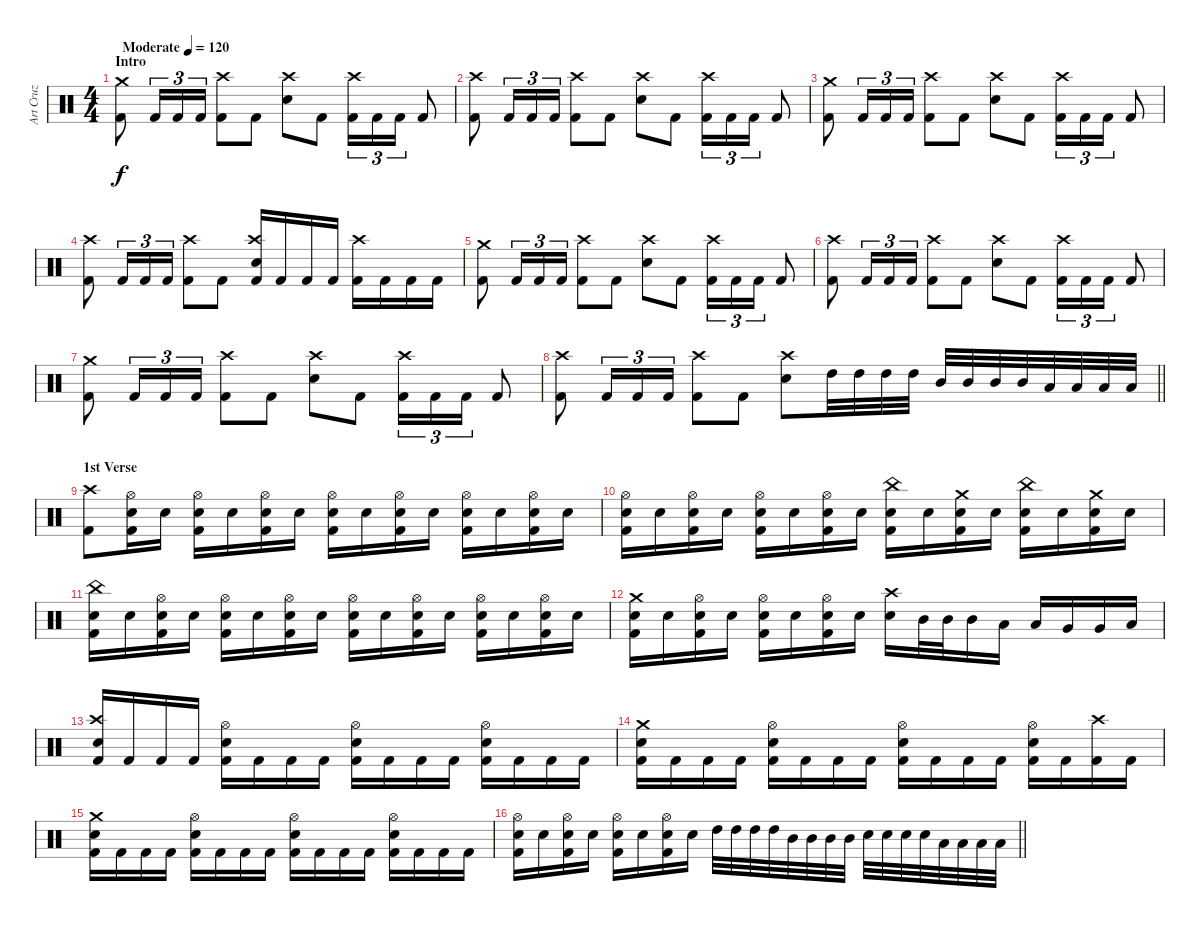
\track ("Art Cruz" "Art Cruz") {instrument percussion}
\staff {score}
\articulation defaults
\ts (4 4)
\section ("" "Intro")
\tempo (120 "Moderate")
\clef neutral
\ks c
("Crash medium (hit)" "Kick (hit) 2").8{dy f} "Kick (hit) 2".16{tu (3 2)} "Kick (hit) 2".16{tu (3 2)} "Kick (hit) 2".16{tu (3 2)} ("Crash high (hit)" "Kick (hit) 2").8 "Kick (hit) 2".8 ("Crash high (hit)" "Snare (hit) 2").8 "Kick (hit) 2".8 ("Crash high (hit)" "Kick (hit) 2").16{tu (3 2)} "Kick (hit) 2".16{tu (3 2)} "Kick (hit) 2".16{tu (3 2)} "Kick (hit) 2".8 |
("Crash high (hit)" "Kick (hit) 2").8 "Kick (hit) 2".16{tu (3 2)} "Kick (hit) 2".16{tu (3 2)} "Kick (hit) 2".16{tu (3 2)} ("Crash high (hit)" "Kick (hit) 2").8 "Kick (hit) 2".8 ("Crash high (hit)" "Snare (hit) 2").8 "Kick (hit) 2".8 ("Crash high (hit)" "Kick (hit) 2").16{tu (3 2)} "Kick (hit) 2".16{tu (3 2)} "Kick (hit) 2".16{tu (3 2)} "Kick (hit) 2".8 |
("Crash medium (hit)" "Kick (hit) 2").8 "Kick (hit) 2".16{tu (3 2)} "Kick (hit) 2".16{tu (3 2)} "Kick (hit) 2".16{tu (3 2)} ("Crash high (hit)" "Kick (hit) 2").8 "Kick (hit) 2".8 ("Crash high (hit)" "Snare (hit) 2").8 "Kick (hit) 2".8 ("Crash high (hit)" "Kick (hit) 2").16{tu (3 2)} "Kick (hit) 2".16{tu (3 2)} "Kick (hit) 2".16{tu (3 2)} "Kick (hit) 2".8 |
("Crash high (hit)" "Kick (hit) 2").8 "Kick (hit) 2".16{tu (3 2)} "Kick (hit) 2".16{tu (3 2)} "Kick (hit) 2".16{tu (3 2)} ("Crash high (hit)" "Kick (hit) 2").8 "Kick (hit) 2".8 ("Crash high (hit)" "Snare (hit) 2" "Kick (hit) 2").16 "Kick (hit) 2".16 "Kick (hit) 2".16 "Kick (hit) 2".16 ("Crash high (hit)" "Kick (hit) 2").16 "Kick (hit) 2".16 "Kick (hit) 2".16 "Kick (hit) 2".16 |
("Crash medium (hit)" "Kick (hit) 2").8 "Kick (hit) 2".16{tu (3 2)} "Kick (hit) 2".16{tu (3 2)} "Kick (hit) 2".16{tu (3 2)} ("Crash high (hit)" "Kick (hit) 2").8 "Kick (hit) 2".8 ("Crash high (hit)" "Snare (hit) 2").8 "Kick (hit) 2".8 ("Crash high (hit)" "Kick (hit) 2").16{tu (3 2)} "Kick (hit) 2".16{tu (3 2)} "Kick (hit) 2".16{tu (3 2)} "Kick (hit) 2".8 |
("Crash high (hit)" "Kick (hit) 2").8 "Kick (hit) 2".16{tu (3 2)} "Kick (hit) 2".16{tu (3 2)} "Kick (hit) 2".16{tu (3 2)} ("Crash high (hit)" "Kick (hit) 2").8 "Kick (hit) 2".8 ("Crash high (hit)" "Snare (hit) 2").8 "Kick (hit) 2".8 ("Crash high (hit)" "Kick (hit) 2").16{tu (3 2)} "Kick (hit) 2".16{tu (3 2)} "Kick (hit) 2".16{tu (3 2)} "Kick (hit) 2".8 |
("Crash medium (hit)" "Kick (hit) 2").8 "Kick (hit) 2".16{tu (3 2)} "Kick (hit) 2".16{tu (3 2)} "Kick (hit) 2".16{tu (3 2)} ("Crash high (hit)" "Kick (hit) 2").8 "Kick (hit) 2".8 ("Crash high (hit)" "Snare (hit) 2").8 "Kick (hit) 2".8 ("Crash high (hit)" "Kick (hit) 2").16{tu (3 2)} "Kick (hit) 2".16{tu (3 2)} "Kick (hit) 2".16{tu (3 2)} "Kick (hit) 2".8 |
\barLineRight lightlight
("Crash high (hit)" "Kick (hit) 2").8 "Kick (hit) 2".16{tu (3 2)} "Kick (hit) 2".16{tu (3 2)} "Kick (hit) 2".16{tu (3 2)} ("Crash high (hit)" "Kick (hit) 2").8 "Kick (hit) 2".8 ("Crash high (hit)" "Snare (hit) 2").8 "High Tom (hit)".32 "High Tom (hit)".32 "High Tom (hit)".32 "High Tom (hit)".32 "Mid Tom (hit)".32 "Mid Tom (hit)".32 "Mid Tom (hit)".32 "Mid Tom (hit)".32 "Low Tom (hit)".32 "Low Tom (hit)".32 "Low Tom (hit)".32 "Low Tom (hit)".32 |
\section ("" "1st Verse")
("Crash high (hit)" "Kick (hit) 2").8 ("Hi-Hat (open)" "Snare (hit) 2" "Kick (hit) 2").16 "Snare (hit) 2".16 ("Hi-Hat (open)" "Snare (hit) 2" "Kick (hit) 2").16 "Snare (hit) 2".16 ("Hi-Hat (open)" "Snare (hit) 2" "Kick (hit) 2").16 "Snare (hit) 2".16 ("Hi-Hat (open)" "Snare (hit) 2" "Kick (hit) 2").16 "Snare (hit) 2".16 ("Hi-Hat (open)" "Snare (hit) 2" "Kick (hit) 2").16 "Snare (hit) 2".16 ("Hi-Hat (open)" "Snare (hit) 2" "Kick (hit) 2").16 "Snare (hit) 2".16 ("Hi-Hat (open)" "Snare (hit) 2" "Kick (hit) 2").16 "Snare (hit) 2".16 |
("Hi-Hat (open)" "Snare (hit) 2" "Kick (hit) 2").16 "Snare (hit) 2".16 ("Hi-Hat (open)" "Snare (hit) 2" "Kick (hit) 2").16 "Snare (hit) 2".16 ("Hi-Hat (open)" "Snare (hit) 2" "Kick (hit) 2").16 "Snare (hit) 2".16 ("Hi-Hat (open)" "Snare (hit) 2" "Kick (hit) 2").16 "Snare (hit) 2".16 ("China (hit)" "Snare (hit) 2" "Kick (hit) 2").16 "Snare (hit) 2".16 ("Crash medium (hit)" "Snare (hit) 2" "Kick (hit) 2").16 "Snare (hit) 2".16 ("China (hit)" "Snare (hit) 2" "Kick (hit) 2").16 "Snare (hit) 2".16 ("Crash medium (hit)" "Snare (hit) 2" "Kick (hit) 2").16 "Snare (hit) 2".16 |
("China (hit)" "Snare (hit) 2" "Kick (hit) 2").16 "Snare (hit) 2".16 ("Hi-Hat (open)" "Snare (hit) 2" "Kick (hit) 2").16 "Snare (hit) 2".16 ("Hi-Hat (open)" "Snare (hit) 2" "Kick (hit) 2").16 "Snare (hit) 2".16 ("Hi-Hat (open)" "Snare (hit) 2" "Kick (hit) 2").16 "Snare (hit) 2".16 ("Hi-Hat (open)" "Snare (hit) 2" "Kick (hit) 2").16 "Snare (hit) 2".16 ("Hi-Hat (open)" "Snare (hit) 2" "Kick (hit) 2").16 "Snare (hit) 2".16 ("Hi-Hat (open)" "Snare (hit) 2" "Kick (hit) 2").16 "Snare (hit) 2".16 ("Hi-Hat (open)" "Snare (hit) 2" "Kick (hit) 2").16 "Snare (hit) 2".16 |
("Crash medium (hit)" "Snare (hit) 2" "Kick (hit) 2").16 "Snare (hit) 2".16 ("Hi-Hat (open)" "Snare (hit) 2" "Kick (hit) 2").16 "Snare (hit) 2".16 ("Hi-Hat (open)" "Snare (hit) 2" "Kick (hit) 2").16 "Snare (hit) 2".16 ("Hi-Hat (open)" "Snare (hit) 2" "Kick (hit) 2").16 "Snare (hit) 2".16 ("Crash high (hit)" "Snare (hit) 2").16 "Mid Tom (hit)".32 "Mid Tom (hit)".32 "Mid Tom (hit)".16 "Low Tom (hit)".16 "Low Tom (hit)".16 "Very Low Tom (hit)".16 "Very Low Tom (hit)".16 "Low Floor Tom (hit)".16 |
("Crash high (hit)" "Snare (hit) 2" "Kick (hit) 2").16 "Kick (hit) 2".16 "Kick (hit) 2".16 "Kick (hit) 2".16 ("Hi-Hat (open)" "Snare (hit) 2" "Kick (hit) 2").16 "Kick (hit) 2".16 "Kick (hit) 2".16 "Kick (hit) 2".16 ("Hi-Hat (open)" "Snare (hit) 2" "Kick (hit) 2").16 "Kick (hit) 2".16 "Kick (hit) 2".16 "Kick (hit) 2".16 ("Hi-Hat (open)" "Snare (hit) 2" "Kick (hit) 2").16 "Kick (hit) 2".16 "Kick (hit) 2".16 "Kick (hit) 2".16 |
("Crash medium (hit)" "Snare (hit) 2" "Kick (hit) 2").16 "Kick (hit) 2".16 "Kick (hit) 2".16 "Kick (hit) 2".16 ("Hi-Hat (open)" "Snare (hit) 2" "Kick (hit) 2").16 "Kick (hit) 2".16 "Kick (hit) 2".16 "Kick (hit) 2".16 ("Hi-Hat (open)" "Snare (hit) 2" "Kick (hit) 2").16 "Kick (hit) 2".16 "Kick (hit) 2".16 "Kick (hit) 2".16 ("Hi-Hat (open)" "Snare (hit) 2" "Kick (hit) 2").16 "Kick (hit) 2".16 ("Crash high (hit)" "Kick (hit) 2").16 "Kick (hit) 2".16 |
("Crash medium (hit)" "Snare (hit) 2" "Kick (hit) 2").16 "Kick (hit) 2".16 "Kick (hit) 2".16 "Kick (hit) 2".16 ("Hi-Hat (open)" "Snare (hit) 2" "Kick (hit) 2").16 "Kick (hit) 2".16 "Kick (hit) 2".16 "Kick (hit) 2".16 ("Hi-Hat (open)" "Snare (hit) 2" "Kick (hit) 2").16 "Kick (hit) 2".16 "Kick (hit) 2".16 "Kick (hit) 2".16 ("Hi-Hat (open)" "Snare (hit) 2" "Kick (hit) 2").16 "Kick (hit) 2".16 "Kick (hit) 2".16 "Kick (hit) 2".16 |
\barLineRight lightlight
("Hi-Hat (open)" "Snare (hit) 2" "Kick (hit) 2").16 "Snare (hit) 2".16 ("Hi-Hat (open)" "Snare (hit) 2" "Kick (hit) 2").16 "Snare (hit) 2".16 ("Hi-Hat (open)" "Snare (hit) 2" "Kick (hit) 2").16 "Snare (hit) 2".16 ("Hi-Hat (open)" "Snare (hit) 2" "Kick (hit) 2").16 "Snare (hit) 2".16 "High Tom (hit)".32 "High Tom (hit)".32 "High Tom (hit)".32 "High Tom (hit)".32 "Mid Tom (hit)".32 "Mid Tom (hit)".32 "Mid Tom (hit)".32 "Mid Tom (hit)".32 "Snare (hit) 2".32 "Snare (hit) 2".32 "Snare (hit) 2".32 "Snare (hit) 2".32 "Low Tom (hit)".32 "Low Tom (hit)".32 "Low Tom (hit)".32 "Low Tom (hit)".32
